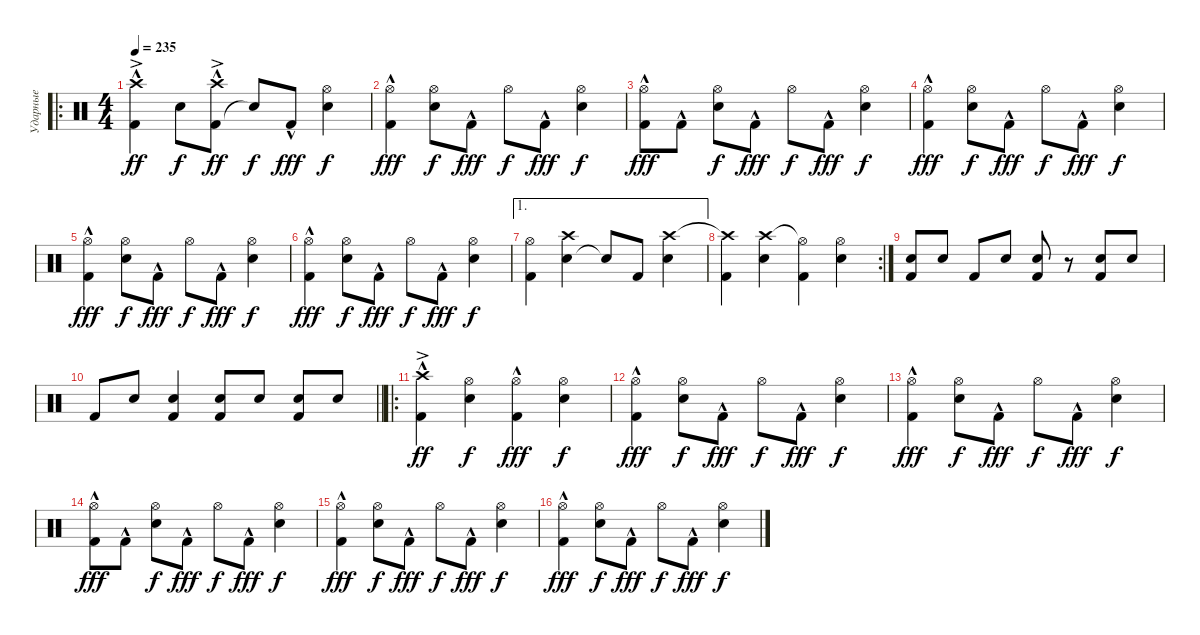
\track ("Ударные" "Ударные") {instrument percussion}
\staff {score}
\articulation defaults
\ro
\ts (4 4)
\tempo 235
\clef neutral
\ks c
("Kick (hit) 2"{hac} "Crash high (hit)"{ac}).4{dy ff} "Snare (hit) 2".8{dy f} ("Kick (hit) 2"{hac} "Crash high (hit)"{ac}).8{dy ff} "Snare (hit)"{t}.8{dy f} "Kick (hit) 2"{hac}.8{dy fff} ("Snare (hit) 2" "Hi-Hat (open)").4{dy f} |
("Kick (hit) 2"{hac} "Hi-Hat (open)").4{dy fff} ("Snare (hit) 2" "Hi-Hat (open)").8{dy f} "Kick (hit) 2"{hac}.8{dy fff} "Hi-Hat (open)".8{dy f} "Kick (hit) 2"{hac}.8{dy fff} ("Snare (hit) 2" "Hi-Hat (open)").4{dy f} |
("Kick (hit) 2"{hac} "Hi-Hat (open)").8{dy fff} "Kick (hit) 2"{hac}.8 ("Snare (hit) 2" "Hi-Hat (open)").8{dy f} "Kick (hit) 2"{hac}.8{dy fff} "Hi-Hat (open)".8{dy f} "Kick (hit) 2"{hac}.8{dy fff} ("Snare (hit) 2" "Hi-Hat (open)").4{dy f} |
("Kick (hit) 2"{hac} "Hi-Hat (open)").4{dy fff} ("Snare (hit) 2" "Hi-Hat (open)").8{dy f} "Kick (hit) 2"{hac}.8{dy fff} "Hi-Hat (open)".8{dy f} "Kick (hit) 2"{hac}.8{dy fff} ("Snare (hit) 2" "Hi-Hat (open)").4{dy f} |
("Kick (hit) 2"{hac} "Hi-Hat (open)").4{dy fff} ("Snare (hit) 2" "Hi-Hat (open)").8{dy f} "Kick (hit) 2"{hac}.8{dy fff} "Hi-Hat (open)".8{dy f} "Kick (hit) 2"{hac}.8{dy fff} ("Snare (hit) 2" "Hi-Hat (open)").4{dy f} |
("Kick (hit) 2"{hac} "Hi-Hat (open)").4{dy fff} ("Snare (hit) 2" "Hi-Hat (open)").8{dy f} "Kick (hit) 2"{hac}.8{dy fff} "Hi-Hat (open)".8{dy f} "Kick (hit) 2"{hac}.8{dy fff} ("Snare (hit) 2" "Hi-Hat (open)").4{dy f} |
\ae 1
("Kick (hit) 2" "Hi-Hat (open)").4 ("Snare (hit) 2" "Crash high (hit)").4 "Snare (hit)"{t}.8 "Kick (hit) 2".8 ("Snare (hit) 2" "Crash high (hit)").4 |
\rc 2
("Kick (hit) 2" "Crash high (hit)"{t}).4 ("Snare (hit) 2" "Crash high (hit)").4 ("Kick (hit) 2" "Hi-Hat (open)"{t}).4 ("Snare (hit) 2" "Hi-Hat (open)").4 |
("Kick (hit) 2" "Snare (hit) 2").8 "Snare (hit) 2".8 "Kick (hit) 2".8 "Snare (hit) 2".8 ("Kick (hit) 2" "Snare (hit) 2").8 r.8 ("Kick (hit) 2" "Snare (hit) 2").8 "Snare (hit) 2".8 |
\barLineRight lightlight "Kick (hit) 2".8 "Snare (hit) 2".8
("Kick (hit) 2" "Snare (hit) 2").4 ("Kick (hit) 2" "Snare (hit) 2").8 "Snare (hit) 2".8 ("Kick (hit) 2" "Snare (hit) 2").8 "Snare (hit) 2".8 |
\ro
("Kick (hit) 2"{hac} "Crash high (hit)"{ac}).4{dy ff} ("Snare (hit) 2" "Hi-Hat (open)").4{dy f} ("Kick (hit) 2"{hac} "Hi-Hat (open)").4{dy fff} ("Snare (hit) 2" "Hi-Hat (open)").4{dy f} |
("Kick (hit) 2"{hac} "Hi-Hat (open)").4{dy fff} ("Snare (hit) 2" "Hi-Hat (open)").8{dy f} "Kick (hit) 2"{hac}.8{dy fff} "Hi-Hat (open)".8{dy f} "Kick (hit) 2"{hac}.8{dy fff} ("Snare (hit) 2" "Hi-Hat (open)").4{dy f} |
("Kick (hit) 2"{hac} "Hi-Hat (open)").4{dy fff} ("Snare (hit) 2" "Hi-Hat (open)").8{dy f} "Kick (hit) 2"{hac}.8{dy fff} "Hi-Hat (open)".8{dy f} "Kick (hit) 2"{hac}.8{dy fff} ("Snare (hit) 2" "Hi-Hat (open)").4{dy f} |
("Kick (hit) 2"{hac} "Hi-Hat (open)").8{dy fff} "Kick (hit) 2"{hac}.8 ("Snare (hit) 2" "Hi-Hat (open)").8{dy f} "Kick (hit) 2"{hac}.8{dy fff} "Hi-Hat (open)".8{dy f} "Kick (hit) 2"{hac}.8{dy fff} ("Snare (hit) 2" "Hi-Hat (open)").4{dy f} |
("Kick (hit) 2"{hac} "Hi-Hat (open)").4{dy fff} ("Snare (hit) 2" "Hi-Hat (open)").8{dy f} "Kick (hit) 2"{hac}.8{dy fff} "Hi-Hat (open)".8{dy f} "Kick (hit) 2"{hac}.8{dy fff} ("Snare (hit) 2" "Hi-Hat (open)").4{dy f} |
("Kick (hit) 2"{hac} "Hi-Hat (open)").4{dy fff} ("Snare (hit) 2" "Hi-Hat (open)").8{dy f} "Kick (hit) 2"{hac}.8{dy fff} "Hi-Hat (open)".8{dy f} "Kick (hit) 2"{hac}.8{dy fff} ("Snare (hit) 2" "Hi-Hat (open)").4{dy f}
